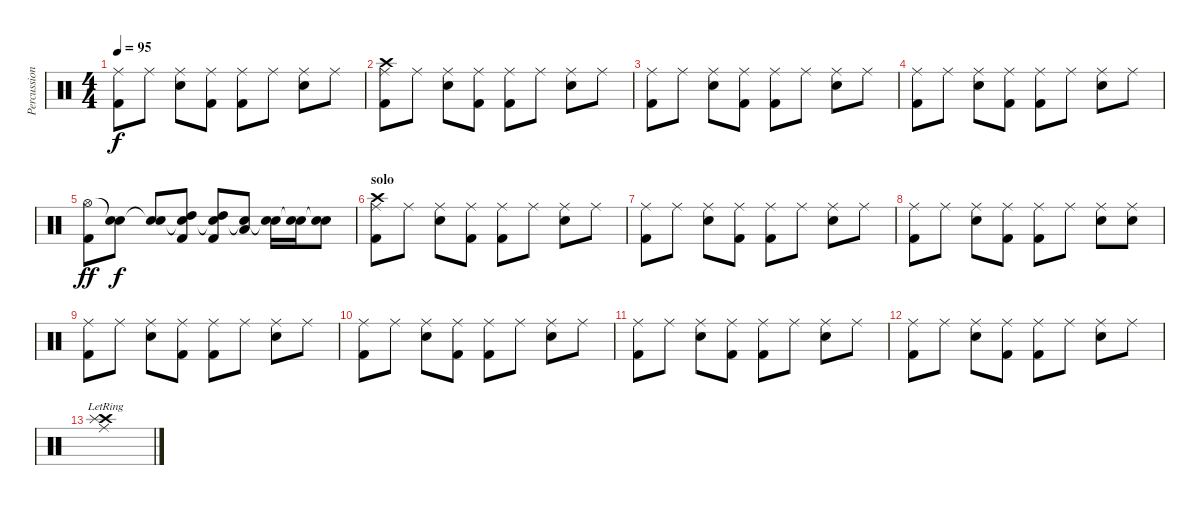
\track ("Percussion" "Percussion") {instrument percussion}
\staff {score}
\articulation defaults
\ts (4 4)
\tempo 95
\clef neutral
\ks c
("Ride (middle)" "Kick (hit) 2").8{dy f} "Ride (middle)".8 ("Ride (middle)" "Snare (hit) 2").8 ("Ride (middle)" "Kick (hit) 2").8 ("Ride (middle)" "Kick (hit) 2").8 "Ride (middle)".8 ("Ride (middle)" "Snare (hit) 2").8 "Ride (middle)".8 |
("Ride (middle)" "Crash high (hit)" "Kick (hit) 2").8 "Ride (middle)".8 ("Ride (middle)" "Snare (hit) 2").8 ("Ride (middle)" "Kick (hit) 2").8 ("Ride (middle)" "Kick (hit) 2").8 "Ride (middle)".8 ("Ride (middle)" "Snare (hit) 2").8 "Ride (middle)".8 |
("Ride (middle)" "Kick (hit) 2").8 "Ride (middle)".8 ("Ride (middle)" "Snare (hit) 2").8 ("Ride (middle)" "Kick (hit) 2").8 ("Ride (middle)" "Kick (hit) 2").8 "Ride (middle)".8 ("Ride (middle)" "Snare (hit) 2").8 "Ride (middle)".8 |
("Ride (middle)" "Kick (hit) 2").8 "Ride (middle)".8 ("Ride (middle)" "Snare (hit) 2").8 ("Ride (middle)" "Kick (hit) 2").8 ("Ride (middle)" "Kick (hit) 2").8 "Ride (middle)".8 ("Ride (middle)" "Snare (hit) 2").8 "Ride (middle)".8 |
("Hi-Hat (open)" "Kick (hit) 2").8{dy ff} ("Snare (hit)"{t} "Snare (hit) 2").8{dy f} ("Snare (hit)"{t} "Snare (hit) 2").8 ("Snare (hit)"{t} "High Tom (hit)" "Kick (hit) 2").8 ("Snare (hit)"{t} "High Tom (hit)" "Kick (hit) 2").8 ("Snare (hit)"{t} "Low Tom (hit)").8 ("Snare (hit)"{t} "Snare (hit) 2").16 ("Snare (hit)"{t} "Snare (hit) 2").16 ("Snare (hit)"{t} "Snare (hit) 2").8 |
\section ("" "solo")
("Ride (middle)" "Crash high (hit)" "Kick (hit) 2").8 "Ride (middle)".8 ("Ride (middle)" "Snare (hit) 2").8 ("Ride (middle)" "Kick (hit) 2").8 ("Ride (middle)" "Kick (hit) 2").8 "Ride (middle)".8 ("Ride (middle)" "Snare (hit) 2").8 "Ride (middle)".8 |
("Ride (middle)" "Kick (hit) 2").8 "Ride (middle)".8 ("Ride (middle)" "Snare (hit) 2").8 ("Ride (middle)" "Kick (hit) 2").8 ("Ride (middle)" "Kick (hit) 2").8 "Ride (middle)".8 ("Ride (middle)" "Snare (hit) 2").8 "Ride (middle)".8 |
("Ride (middle)" "Kick (hit) 2").8 "Ride (middle)".8 ("Ride (middle)" "Snare (hit) 2").8 ("Ride (middle)" "Kick (hit) 2").8 ("Ride (middle)" "Kick (hit) 2").8 "Ride (middle)".8 ("Ride (middle)" "Snare (hit) 2").8 ("Ride (middle)" "Snare (hit) 2").8 |
("Ride (middle)" "Kick (hit) 2").8 "Ride (middle)".8 ("Ride (middle)" "Snare (hit) 2").8 ("Ride (middle)" "Kick (hit) 2").8 ("Ride (middle)" "Kick (hit) 2").8 "Ride (middle)".8 ("Ride (middle)" "Snare (hit) 2").8 "Ride (middle)".8 |
("Ride (middle)" "Kick (hit) 2").8 "Ride (middle)".8 ("Ride (middle)" "Snare (hit) 2").8 ("Ride (middle)" "Kick (hit) 2").8 ("Ride (middle)" "Kick (hit) 2").8 "Ride (middle)".8 ("Ride (middle)" "Snare (hit) 2").8 "Ride (middle)".8 |
("Ride (middle)" "Kick (hit) 2").8 "Ride (middle)".8 ("Ride (middle)" "Snare (hit) 2").8 ("Ride (middle)" "Kick (hit) 2").8 ("Ride (middle)" "Kick (hit) 2").8 "Ride (middle)".8 ("Ride (middle)" "Snare (hit) 2").8 "Ride (middle)".8 |
("Ride (middle)" "Kick (hit) 2").8 "Ride (middle)".8 ("Ride (middle)" "Snare (hit) 2").8 ("Ride (middle)" "Kick (hit) 2").8 ("Ride (middle)" "Kick (hit) 2").8 "Ride (middle)".8 ("Ride (middle)" "Snare (hit) 2").8 "Ride (middle)".8 |
("Ride (middle)"{lr} "Crash high (hit)"{lr} "Splash (hit)").1
